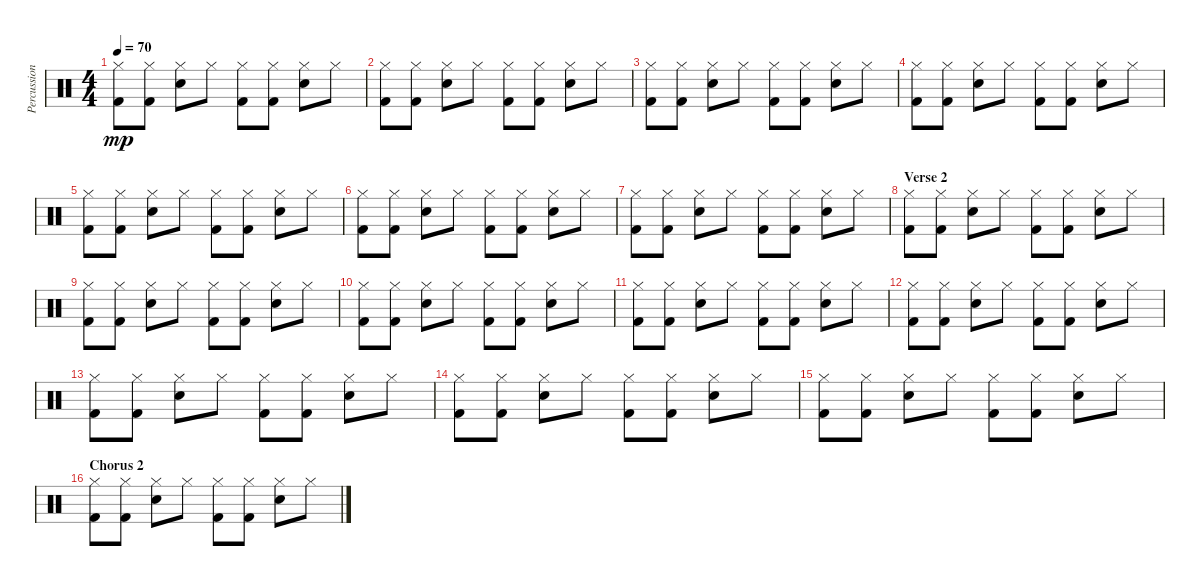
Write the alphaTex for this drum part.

\track ("Percussions" "Percussion") {instrument percussion}
\staff {score}
\articulation defaults
\ts (4 4)
\tempo 70
\clef neutral
\ks c
("Kick (hit) 2" "Hi-Hat (closed)").8{dy mp} ("Kick (hit) 2" "Hi-Hat (closed)").8 ("Electric Snare (hit)" "Hi-Hat (closed)").8 "Hi-Hat (closed)".8 ("Kick (hit) 2" "Hi-Hat (closed)").8 ("Kick (hit) 2" "Hi-Hat (closed)").8 ("Electric Snare (hit)" "Hi-Hat (closed)").8 "Hi-Hat (closed)".8 |
("Kick (hit) 2" "Hi-Hat (closed)").8 ("Kick (hit) 2" "Hi-Hat (closed)").8 ("Electric Snare (hit)" "Hi-Hat (closed)").8 "Hi-Hat (closed)".8 ("Kick (hit) 2" "Hi-Hat (closed)").8 ("Kick (hit) 2" "Hi-Hat (closed)").8 ("Electric Snare (hit)" "Hi-Hat (closed)").8 "Hi-Hat (closed)".8 |
("Kick (hit) 2" "Hi-Hat (closed)").8 ("Kick (hit) 2" "Hi-Hat (closed)").8 ("Electric Snare (hit)" "Hi-Hat (closed)").8 "Hi-Hat (closed)".8 ("Kick (hit) 2" "Hi-Hat (closed)").8 ("Kick (hit) 2" "Hi-Hat (closed)").8 ("Electric Snare (hit)" "Hi-Hat (closed)").8 "Hi-Hat (closed)".8 |
("Kick (hit) 2" "Hi-Hat (closed)").8 ("Kick (hit) 2" "Hi-Hat (closed)").8 ("Electric Snare (hit)" "Hi-Hat (closed)").8 "Hi-Hat (closed)".8 ("Kick (hit) 2" "Hi-Hat (closed)").8 ("Kick (hit) 2" "Hi-Hat (closed)").8 ("Electric Snare (hit)" "Hi-Hat (closed)").8 "Hi-Hat (closed)".8 |
("Kick (hit) 2" "Hi-Hat (closed)").8 ("Kick (hit) 2" "Hi-Hat (closed)").8 ("Electric Snare (hit)" "Hi-Hat (closed)").8 "Hi-Hat (closed)".8 ("Kick (hit) 2" "Hi-Hat (closed)").8 ("Kick (hit) 2" "Hi-Hat (closed)").8 ("Electric Snare (hit)" "Hi-Hat (closed)").8 "Hi-Hat (closed)".8 |
("Kick (hit) 2" "Hi-Hat (closed)").8 ("Kick (hit) 2" "Hi-Hat (closed)").8 ("Electric Snare (hit)" "Hi-Hat (closed)").8 "Hi-Hat (closed)".8 ("Kick (hit) 2" "Hi-Hat (closed)").8 ("Kick (hit) 2" "Hi-Hat (closed)").8 ("Electric Snare (hit)" "Hi-Hat (closed)").8 "Hi-Hat (closed)".8 |
("Kick (hit) 2" "Hi-Hat (closed)").8 ("Kick (hit) 2" "Hi-Hat (closed)").8 ("Electric Snare (hit)" "Hi-Hat (closed)").8 "Hi-Hat (closed)".8 ("Kick (hit) 2" "Hi-Hat (closed)").8 ("Kick (hit) 2" "Hi-Hat (closed)").8 ("Electric Snare (hit)" "Hi-Hat (closed)").8 "Hi-Hat (closed)".8 |
\section ("" "Verse 2")
("Kick (hit) 2" "Hi-Hat (closed)").8 ("Kick (hit) 2" "Hi-Hat (closed)").8 ("Electric Snare (hit)" "Hi-Hat (closed)").8 "Hi-Hat (closed)".8 ("Kick (hit) 2" "Hi-Hat (closed)").8 ("Kick (hit) 2" "Hi-Hat (closed)").8 ("Electric Snare (hit)" "Hi-Hat (closed)").8 "Hi-Hat (closed)".8 |
("Kick (hit) 2" "Hi-Hat (closed)").8 ("Kick (hit) 2" "Hi-Hat (closed)").8 ("Electric Snare (hit)" "Hi-Hat (closed)").8 "Hi-Hat (closed)".8 ("Kick (hit) 2" "Hi-Hat (closed)").8 ("Kick (hit) 2" "Hi-Hat (closed)").8 ("Electric Snare (hit)" "Hi-Hat (closed)").8 "Hi-Hat (closed)".8 |
("Kick (hit) 2" "Hi-Hat (closed)").8 ("Kick (hit) 2" "Hi-Hat (closed)").8 ("Electric Snare (hit)" "Hi-Hat (closed)").8 "Hi-Hat (closed)".8 ("Kick (hit) 2" "Hi-Hat (closed)").8 ("Kick (hit) 2" "Hi-Hat (closed)").8 ("Electric Snare (hit)" "Hi-Hat (closed)").8 "Hi-Hat (closed)".8 |
("Kick (hit) 2" "Hi-Hat (closed)").8 ("Kick (hit) 2" "Hi-Hat (closed)").8 ("Electric Snare (hit)" "Hi-Hat (closed)").8 "Hi-Hat (closed)".8 ("Kick (hit) 2" "Hi-Hat (closed)").8 ("Kick (hit) 2" "Hi-Hat (closed)").8 ("Electric Snare (hit)" "Hi-Hat (closed)").8 "Hi-Hat (closed)".8 |
("Kick (hit) 2" "Hi-Hat (closed)").8 ("Kick (hit) 2" "Hi-Hat (closed)").8 ("Electric Snare (hit)" "Hi-Hat (closed)").8 "Hi-Hat (closed)".8 ("Kick (hit) 2" "Hi-Hat (closed)").8 ("Kick (hit) 2" "Hi-Hat (closed)").8 ("Electric Snare (hit)" "Hi-Hat (closed)").8 "Hi-Hat (closed)".8 |
("Kick (hit) 2" "Hi-Hat (closed)").8 ("Kick (hit) 2" "Hi-Hat (closed)").8 ("Electric Snare (hit)" "Hi-Hat (closed)").8 "Hi-Hat (closed)".8 ("Kick (hit) 2" "Hi-Hat (closed)").8 ("Kick (hit) 2" "Hi-Hat (closed)").8 ("Electric Snare (hit)" "Hi-Hat (closed)").8 "Hi-Hat (closed)".8 |
("Kick (hit) 2" "Hi-Hat (closed)").8 ("Kick (hit) 2" "Hi-Hat (closed)").8 ("Electric Snare (hit)" "Hi-Hat (closed)").8 "Hi-Hat (closed)".8 ("Kick (hit) 2" "Hi-Hat (closed)").8 ("Kick (hit) 2" "Hi-Hat (closed)").8 ("Electric Snare (hit)" "Hi-Hat (closed)").8 "Hi-Hat (closed)".8 |
("Kick (hit) 2" "Hi-Hat (closed)").8 ("Kick (hit) 2" "Hi-Hat (closed)").8 ("Electric Snare (hit)" "Hi-Hat (closed)").8 "Hi-Hat (closed)".8 ("Kick (hit) 2" "Hi-Hat (closed)").8 ("Kick (hit) 2" "Hi-Hat (closed)").8 ("Electric Snare (hit)" "Hi-Hat (closed)").8 "Hi-Hat (closed)".8 |
\section ("" "Chorus 2")
("Kick (hit) 2" "Hi-Hat (closed)").8 ("Kick (hit) 2" "Hi-Hat (closed)").8 ("Electric Snare (hit)" "Hi-Hat (closed)").8 "Hi-Hat (closed)".8 ("Kick (hit) 2" "Hi-Hat (closed)").8 ("Kick (hit) 2" "Hi-Hat (closed)").8 ("Electric Snare (hit)" "Hi-Hat (closed)").8 "Hi-Hat (closed)".8
